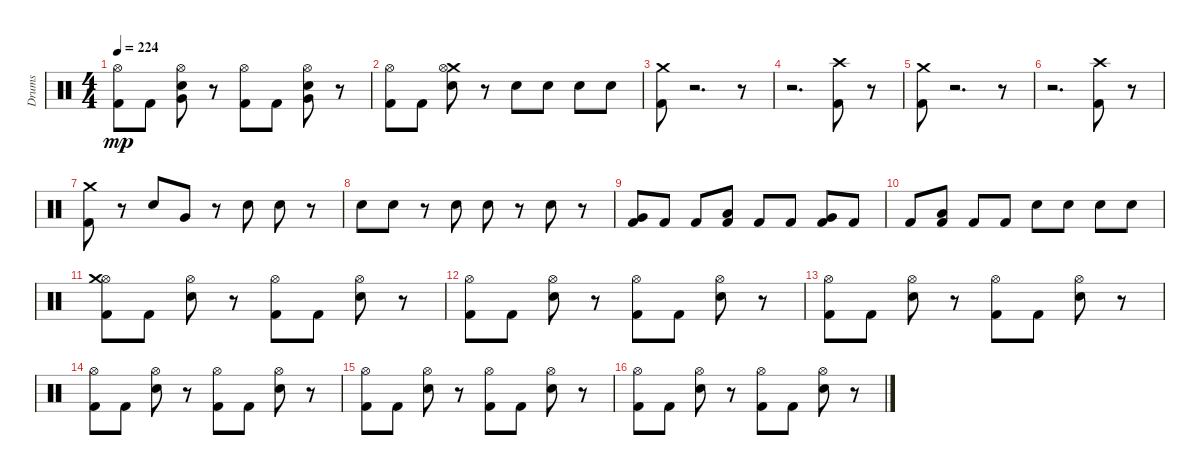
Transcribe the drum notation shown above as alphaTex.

\track ("Drums" "Drums") {instrument percussion}
\staff {score}
\articulation defaults
\ts (4 4)
\tempo 224
\clef neutral
\ks c
("Kick (hit) 2" "Hi-Hat (open)").8{dy mp} "Kick (hit) 2".8 ("Electric Snare (hit)" "Very Low Tom (hit)" "Hi-Hat (open)").8 r.8 ("Hi-Hat (open)" "Kick (hit) 2").8 "Kick (hit) 2".8 ("Very Low Tom (hit)" "Electric Snare (hit)" "Hi-Hat (open)").8 r.8 |
("Hi-Hat (open)" "Kick (hit) 2").8 "Kick (hit) 2".8 ("Crash medium (hit)" "Electric Snare (hit)" "Hi-Hat (open)").8 r.8 "Electric Snare (hit)".8 "Electric Snare (hit)".8 "Electric Snare (hit)".8 "Electric Snare (hit)".8 |
("Kick (hit) 2" "Crash medium (hit)").8 r.2{d} r.8 |
r.2{d} ("Kick (hit) 2" "Crash high (hit)").8 r.8 |
("Kick (hit) 2" "Crash medium (hit)").8 r.2{d} r.8 |
r.2{d} ("Crash high (hit)" "Kick (hit) 2").8 r.8 |
("Crash medium (hit)" "Kick (hit) 2").8 r.8 "Electric Snare (hit)".8 "Very Low Tom (hit)".8 r.8 "Electric Snare (hit)".8 "Electric Snare (hit)".8 r.8 |
"Electric Snare (hit)".8 "Electric Snare (hit)".8 r.8 "Electric Snare (hit)".8 "Electric Snare (hit)".8 r.8 "Electric Snare (hit)".8 r.8 |
("Very Low Tom (hit)" "Kick (hit) 2").8 "Kick (hit) 2".8 "Kick (hit) 2".8 ("Kick (hit) 2" "Low Tom (hit)").8 "Kick (hit) 2".8 "Kick (hit) 2".8 ("Very Low Tom (hit)" "Kick (hit) 2").8 "Kick (hit) 2".8 |
"Kick (hit) 2".8 ("Kick (hit) 2" "Low Tom (hit)").8 "Kick (hit) 2".8 "Kick (hit) 2".8 "Electric Snare (hit)".8 "Electric Snare (hit)".8 "Electric Snare (hit)".8 "Electric Snare (hit)".8 |
("Hi-Hat (open)" "Crash medium (hit)" "Kick (hit) 2").8 "Kick (hit) 2".8 ("Hi-Hat (open)" "Electric Snare (hit)").8 r.8 ("Hi-Hat (open)" "Kick (hit) 2").8 "Kick (hit) 2".8 ("Electric Snare (hit)" "Hi-Hat (open)").8 r.8 |
("Kick (hit) 2" "Hi-Hat (open)").8 "Kick (hit) 2".8 ("Hi-Hat (open)" "Electric Snare (hit)").8 r.8 ("Kick (hit) 2" "Hi-Hat (open)").8 "Kick (hit) 2".8 ("Electric Snare (hit)" "Hi-Hat (open)").8 r.8 |
("Kick (hit) 2" "Hi-Hat (open)").8 "Kick (hit) 2".8 ("Electric Snare (hit)" "Hi-Hat (open)").8 r.8 ("Kick (hit) 2" "Hi-Hat (open)").8 "Kick (hit) 2".8 ("Electric Snare (hit)" "Hi-Hat (open)").8 r.8 |
("Hi-Hat (open)" "Kick (hit) 2").8 "Kick (hit) 2".8 ("Electric Snare (hit)" "Hi-Hat (open)").8 r.8 ("Kick (hit) 2" "Hi-Hat (open)").8 "Kick (hit) 2".8 ("Hi-Hat (open)" "Electric Snare (hit)").8 r.8 |
("Hi-Hat (open)" "Kick (hit) 2").8 "Kick (hit) 2".8 ("Electric Snare (hit)" "Hi-Hat (open)").8 r.8 ("Hi-Hat (open)" "Kick (hit) 2").8 "Kick (hit) 2".8 ("Hi-Hat (open)" "Electric Snare (hit)").8 r.8 |
("Kick (hit) 2" "Hi-Hat (open)").8 "Kick (hit) 2".8 ("Electric Snare (hit)" "Hi-Hat (open)").8 r.8 ("Hi-Hat (open)" "Kick (hit) 2").8 "Kick (hit) 2".8 ("Electric Snare (hit)" "Hi-Hat (open)").8 r.8
